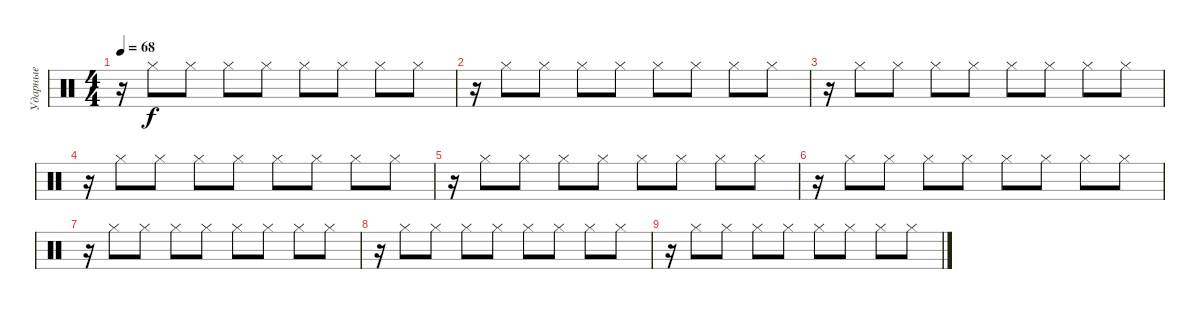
\track ("Ударные" "Ударные") {instrument percussion}
\staff {score}
\articulation defaults
\ts (4 4)
\tempo 68
\clef neutral
\ks c
r.16{dy f} "Hi-Hat (closed)".8 "Hi-Hat (closed)".8 "Hi-Hat (closed)".8 "Hi-Hat (closed)".8 "Hi-Hat (closed)".8 "Hi-Hat (closed)".8 "Hi-Hat (closed)".8 "Hi-Hat (closed)".8 |
r.16 "Hi-Hat (closed)".8 "Hi-Hat (closed)".8 "Hi-Hat (closed)".8 "Hi-Hat (closed)".8 "Hi-Hat (closed)".8 "Hi-Hat (closed)".8 "Hi-Hat (closed)".8 "Hi-Hat (closed)".8 |
r.16 "Hi-Hat (closed)".8 "Hi-Hat (closed)".8 "Hi-Hat (closed)".8 "Hi-Hat (closed)".8 "Hi-Hat (closed)".8 "Hi-Hat (closed)".8 "Hi-Hat (closed)".8 "Hi-Hat (closed)".8 |
r.16 "Hi-Hat (closed)".8 "Hi-Hat (closed)".8 "Hi-Hat (closed)".8 "Hi-Hat (closed)".8 "Hi-Hat (closed)".8 "Hi-Hat (closed)".8 "Hi-Hat (closed)".8 "Hi-Hat (closed)".8 |
r.16 "Hi-Hat (closed)".8 "Hi-Hat (closed)".8 "Hi-Hat (closed)".8 "Hi-Hat (closed)".8 "Hi-Hat (closed)".8 "Hi-Hat (closed)".8 "Hi-Hat (closed)".8 "Hi-Hat (closed)".8 |
r.16 "Hi-Hat (closed)".8 "Hi-Hat (closed)".8 "Hi-Hat (closed)".8 "Hi-Hat (closed)".8 "Hi-Hat (closed)".8 "Hi-Hat (closed)".8 "Hi-Hat (closed)".8 "Hi-Hat (closed)".8 |
r.16 "Hi-Hat (closed)".8 "Hi-Hat (closed)".8 "Hi-Hat (closed)".8 "Hi-Hat (closed)".8 "Hi-Hat (closed)".8 "Hi-Hat (closed)".8 "Hi-Hat (closed)".8 "Hi-Hat (closed)".8 |
r.16 "Hi-Hat (closed)".8 "Hi-Hat (closed)".8 "Hi-Hat (closed)".8 "Hi-Hat (closed)".8 "Hi-Hat (closed)".8 "Hi-Hat (closed)".8 "Hi-Hat (closed)".8 "Hi-Hat (closed)".8 |
r.16 "Hi-Hat (closed)".8 "Hi-Hat (closed)".8 "Hi-Hat (closed)".8 "Hi-Hat (closed)".8 "Hi-Hat (closed)".8 "Hi-Hat (closed)".8 "Hi-Hat (closed)".8 "Hi-Hat (closed)".8
